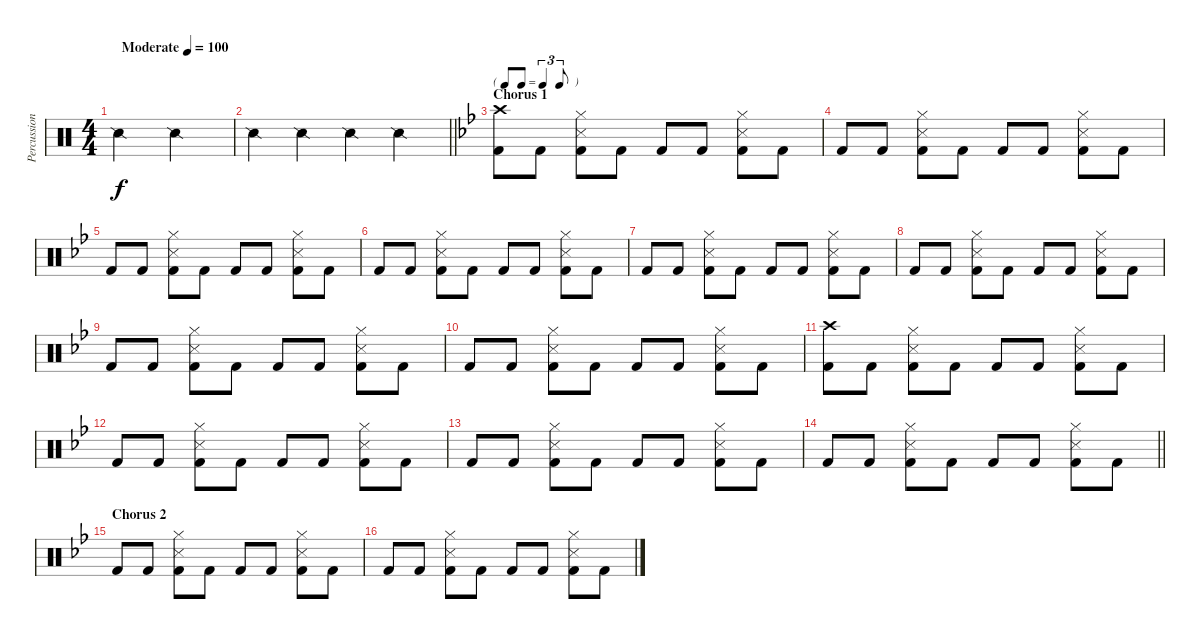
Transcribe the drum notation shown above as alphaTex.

\track ("Percussion" "Percussion") {instrument percussion}
\staff {score}
\articulation defaults
\ts (4 4)
\tempo (100 "Moderate")
\clef neutral
\ks c "Snare (side stick) 2".2{dy f} "Snare (side stick) 2".2
|
\barLineRight lightlight "Snare (side stick) 2".4 "Snare (side stick) 2".4 "Snare (side stick) 2".4 "Snare (side stick) 2".4
|
\tf triplet8th
\section ("" "Chorus 1")
\ks bb
("Crash high (hit)" "Kick (hit) 2").8 "Kick (hit) 2".8 ("Snare (side stick) 3" "Hi-Hat (closed)" "Kick (hit) 2").8 "Kick (hit) 2".8 "Kick (hit) 2".8 "Kick (hit) 2".8 ("Snare (side stick) 3" "Hi-Hat (closed)" "Kick (hit) 2").8 "Kick (hit) 2".8 |
"Kick (hit) 2".8 "Kick (hit) 2".8 ("Snare (side stick) 3" "Hi-Hat (closed)" "Kick (hit) 2").8 "Kick (hit) 2".8 "Kick (hit) 2".8 "Kick (hit) 2".8 ("Snare (side stick) 3" "Hi-Hat (closed)" "Kick (hit) 2").8 "Kick (hit) 2".8 |
"Kick (hit) 2".8 "Kick (hit) 2".8 ("Snare (side stick) 3" "Hi-Hat (closed)" "Kick (hit) 2").8 "Kick (hit) 2".8 "Kick (hit) 2".8 "Kick (hit) 2".8 ("Snare (side stick) 3" "Hi-Hat (closed)" "Kick (hit) 2").8 "Kick (hit) 2".8 |
"Kick (hit) 2".8 "Kick (hit) 2".8 ("Snare (side stick) 3" "Hi-Hat (closed)" "Kick (hit) 2").8 "Kick (hit) 2".8 "Kick (hit) 2".8 "Kick (hit) 2".8 ("Snare (side stick) 3" "Hi-Hat (closed)" "Kick (hit) 2").8 "Kick (hit) 2".8 |
"Kick (hit) 2".8 "Kick (hit) 2".8 ("Snare (side stick) 3" "Hi-Hat (closed)" "Kick (hit) 2").8 "Kick (hit) 2".8 "Kick (hit) 2".8 "Kick (hit) 2".8 ("Snare (side stick) 3" "Hi-Hat (closed)" "Kick (hit) 2").8 "Kick (hit) 2".8 |
"Kick (hit) 2".8 "Kick (hit) 2".8 ("Snare (side stick) 3" "Hi-Hat (closed)" "Kick (hit) 2").8 "Kick (hit) 2".8 "Kick (hit) 2".8 "Kick (hit) 2".8 ("Snare (side stick) 3" "Hi-Hat (closed)" "Kick (hit) 2").8 "Kick (hit) 2".8 |
"Kick (hit) 2".8 "Kick (hit) 2".8 ("Snare (side stick) 3" "Hi-Hat (closed)" "Kick (hit) 2").8 "Kick (hit) 2".8 "Kick (hit) 2".8 "Kick (hit) 2".8 ("Snare (side stick) 3" "Hi-Hat (closed)" "Kick (hit) 2").8 "Kick (hit) 2".8 |
"Kick (hit) 2".8 "Kick (hit) 2".8 ("Snare (side stick) 3" "Hi-Hat (closed)" "Kick (hit) 2").8 "Kick (hit) 2".8 "Kick (hit) 2".8 "Kick (hit) 2".8 ("Snare (side stick) 3" "Hi-Hat (closed)" "Kick (hit) 2").8 "Kick (hit) 2".8 |
("Crash high (hit)" "Kick (hit) 2").8 "Kick (hit) 2".8 ("Snare (side stick) 3" "Hi-Hat (closed)" "Kick (hit) 2").8 "Kick (hit) 2".8 "Kick (hit) 2".8 "Kick (hit) 2".8 ("Snare (side stick) 3" "Hi-Hat (closed)" "Kick (hit) 2").8 "Kick (hit) 2".8 |
"Kick (hit) 2".8 "Kick (hit) 2".8 ("Snare (side stick) 3" "Hi-Hat (closed)" "Kick (hit) 2").8 "Kick (hit) 2".8 "Kick (hit) 2".8 "Kick (hit) 2".8 ("Snare (side stick) 3" "Hi-Hat (closed)" "Kick (hit) 2").8 "Kick (hit) 2".8 |
"Kick (hit) 2".8 "Kick (hit) 2".8 ("Snare (side stick) 3" "Hi-Hat (closed)" "Kick (hit) 2").8 "Kick (hit) 2".8 "Kick (hit) 2".8 "Kick (hit) 2".8 ("Snare (side stick) 3" "Hi-Hat (closed)" "Kick (hit) 2").8 "Kick (hit) 2".8 |
\barLineRight lightlight "Kick (hit) 2".8 "Kick (hit) 2".8
("Snare (side stick) 3" "Hi-Hat (closed)" "Kick (hit) 2").8 "Kick (hit) 2".8 "Kick (hit) 2".8 "Kick (hit) 2".8 ("Snare (side stick) 3" "Hi-Hat (closed)" "Kick (hit) 2").8 "Kick (hit) 2".8 |
\section ("" "Chorus 2")
"Kick (hit) 2".8 "Kick (hit) 2".8 ("Snare (side stick) 3" "Hi-Hat (closed)" "Kick (hit) 2").8 "Kick (hit) 2".8 "Kick (hit) 2".8 "Kick (hit) 2".8 ("Snare (side stick) 3" "Hi-Hat (closed)" "Kick (hit) 2").8 "Kick (hit) 2".8 |
"Kick (hit) 2".8 "Kick (hit) 2".8 ("Snare (side stick) 3" "Hi-Hat (closed)" "Kick (hit) 2").8 "Kick (hit) 2".8 "Kick (hit) 2".8 "Kick (hit) 2".8 ("Snare (side stick) 3" "Hi-Hat (closed)" "Kick (hit) 2").8 "Kick (hit) 2".8
